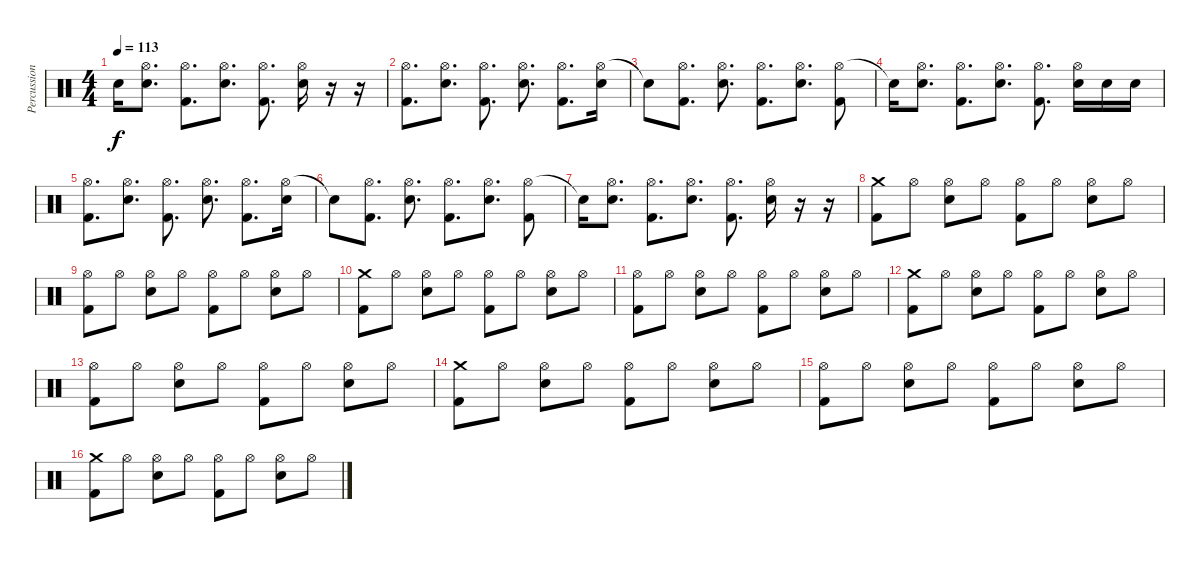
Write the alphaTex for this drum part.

\track ("Percussion" "Percussion") {instrument percussion}
\staff {score}
\articulation defaults
\ts (4 4)
\tempo 113
\clef neutral
\ks c "Snare (hit)"{t}.16{dy f}
("Hi-Hat (open)" "Electric Snare (hit)").8{d} ("Hi-Hat (open)" "Kick (hit) 2").8{d} ("Hi-Hat (open)" "Electric Snare (hit)").8{d} ("Hi-Hat (open)" "Kick (hit) 2").8{d} ("Hi-Hat (open)" "Electric Snare (hit)").16 r.16 r.16 |
("Hi-Hat (open)" "Kick (hit) 2").8{d} ("Hi-Hat (open)" "Electric Snare (hit)").8{d} ("Hi-Hat (open)" "Kick (hit) 2").8{d} ("Hi-Hat (open)" "Electric Snare (hit)").8{d} ("Hi-Hat (open)" "Kick (hit) 2").8{d} ("Hi-Hat (open)" "Electric Snare (hit)").16 |
"Snare (hit)"{t}.8 ("Hi-Hat (open)" "Kick (hit) 2").8{d} ("Hi-Hat (open)" "Electric Snare (hit)").8{d} ("Hi-Hat (open)" "Kick (hit) 2").8{d} ("Hi-Hat (open)" "Electric Snare (hit)").8{d} ("Hi-Hat (open)" "Kick (hit) 2").8 |
"Snare (hit)"{t}.16 ("Hi-Hat (open)" "Electric Snare (hit)").8{d} ("Hi-Hat (open)" "Kick (hit) 2").8{d} ("Hi-Hat (open)" "Electric Snare (hit)").8{d} ("Hi-Hat (open)" "Kick (hit) 2").8{d} ("Hi-Hat (open)" "Electric Snare (hit)").16 "Electric Snare (hit)".16 "Electric Snare (hit)".16 |
("Hi-Hat (open)" "Kick (hit) 2").8{d} ("Hi-Hat (open)" "Electric Snare (hit)").8{d} ("Hi-Hat (open)" "Kick (hit) 2").8{d} ("Hi-Hat (open)" "Electric Snare (hit)").8{d} ("Hi-Hat (open)" "Kick (hit) 2").8{d} ("Hi-Hat (open)" "Electric Snare (hit)").16 |
"Snare (hit)"{t}.8 ("Hi-Hat (open)" "Kick (hit) 2").8{d} ("Hi-Hat (open)" "Electric Snare (hit)").8{d} ("Hi-Hat (open)" "Kick (hit) 2").8{d} ("Hi-Hat (open)" "Electric Snare (hit)").8{d} ("Hi-Hat (open)" "Kick (hit) 2").8 |
"Snare (hit)"{t}.16 ("Hi-Hat (open)" "Electric Snare (hit)").8{d} ("Hi-Hat (open)" "Kick (hit) 2").8{d} ("Hi-Hat (open)" "Electric Snare (hit)").8{d} ("Hi-Hat (open)" "Kick (hit) 2").8{d} ("Hi-Hat (open)" "Electric Snare (hit)").16 r.16 r.16 |
("Crash medium (hit)" "Kick (hit) 2").8 "Hi-Hat (open)".8 ("Hi-Hat (open)" "Electric Snare (hit)").8 "Hi-Hat (open)".8 ("Hi-Hat (open)" "Kick (hit) 2").8 "Hi-Hat (open)".8 ("Hi-Hat (open)" "Electric Snare (hit)").8 "Hi-Hat (open)".8 |
("Hi-Hat (open)" "Kick (hit) 2").8 "Hi-Hat (open)".8 ("Hi-Hat (open)" "Electric Snare (hit)").8 "Hi-Hat (open)".8 ("Hi-Hat (open)" "Kick (hit) 2").8 "Hi-Hat (open)".8 ("Hi-Hat (open)" "Electric Snare (hit)").8 "Hi-Hat (open)".8 |
("Crash medium (hit)" "Kick (hit) 2").8 "Hi-Hat (open)".8 ("Hi-Hat (open)" "Electric Snare (hit)").8 "Hi-Hat (open)".8 ("Hi-Hat (open)" "Kick (hit) 2").8 "Hi-Hat (open)".8 ("Hi-Hat (open)" "Electric Snare (hit)").8 "Hi-Hat (open)".8 |
("Hi-Hat (open)" "Kick (hit) 2").8 "Hi-Hat (open)".8 ("Hi-Hat (open)" "Electric Snare (hit)").8 "Hi-Hat (open)".8 ("Hi-Hat (open)" "Kick (hit) 2").8 "Hi-Hat (open)".8 ("Hi-Hat (open)" "Electric Snare (hit)").8 "Hi-Hat (open)".8 |
("Crash medium (hit)" "Kick (hit) 2").8 "Hi-Hat (open)".8 ("Hi-Hat (open)" "Electric Snare (hit)").8 "Hi-Hat (open)".8 ("Hi-Hat (open)" "Kick (hit) 2").8 "Hi-Hat (open)".8 ("Hi-Hat (open)" "Electric Snare (hit)").8 "Hi-Hat (open)".8 |
("Hi-Hat (open)" "Kick (hit) 2").8 "Hi-Hat (open)".8 ("Hi-Hat (open)" "Electric Snare (hit)").8 "Hi-Hat (open)".8 ("Hi-Hat (open)" "Kick (hit) 2").8 "Hi-Hat (open)".8 ("Hi-Hat (open)" "Electric Snare (hit)").8 "Hi-Hat (open)".8 |
("Crash medium (hit)" "Kick (hit) 2").8 "Hi-Hat (open)".8 ("Hi-Hat (open)" "Electric Snare (hit)").8 "Hi-Hat (open)".8 ("Hi-Hat (open)" "Kick (hit) 2").8 "Hi-Hat (open)".8 ("Hi-Hat (open)" "Electric Snare (hit)").8 "Hi-Hat (open)".8 |
("Hi-Hat (open)" "Kick (hit) 2").8 "Hi-Hat (open)".8 ("Hi-Hat (open)" "Electric Snare (hit)").8 "Hi-Hat (open)".8 ("Hi-Hat (open)" "Kick (hit) 2").8 "Hi-Hat (open)".8 ("Hi-Hat (open)" "Electric Snare (hit)").8 "Hi-Hat (open)".8 |
("Crash medium (hit)" "Kick (hit) 2").8 "Hi-Hat (open)".8 ("Hi-Hat (open)" "Electric Snare (hit)").8 "Hi-Hat (open)".8 ("Hi-Hat (open)" "Kick (hit) 2").8 "Hi-Hat (open)".8 ("Hi-Hat (open)" "Electric Snare (hit)").8 "Hi-Hat (open)".8
